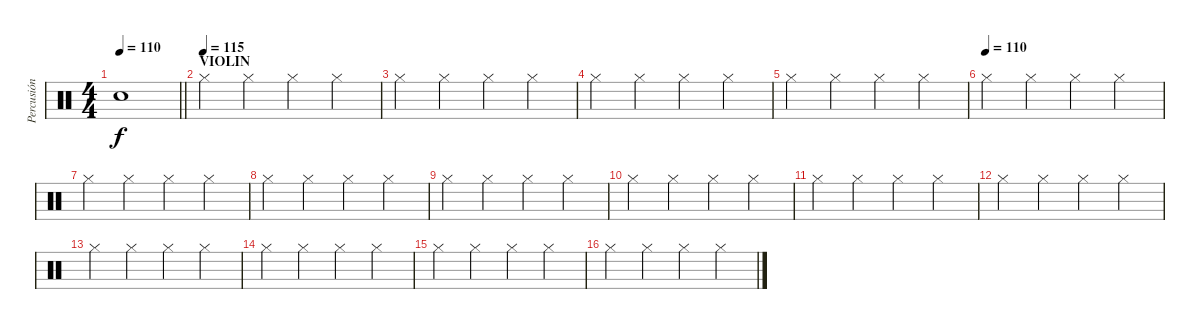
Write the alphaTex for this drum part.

\track ("Percusión" "Percusión") {instrument percussion}
\staff {score}
\articulation defaults
\ts (4 4)
\tempo 110
\clef neutral
\barLineRight lightlight
\ks c "Snare (hit)"{t}.1{dy f}
|
\section ("" "VIOLIN")
\tempo (115)
"Hi-Hat (closed)".4{volume 11} "Hi-Hat (closed)".4 "Hi-Hat (closed)".4 "Hi-Hat (closed)".4 |
"Hi-Hat (closed)".4 "Hi-Hat (closed)".4 "Hi-Hat (closed)".4 "Hi-Hat (closed)".4 |
"Hi-Hat (closed)".4 "Hi-Hat (closed)".4 "Hi-Hat (closed)".4 "Hi-Hat (closed)".4 |
"Hi-Hat (closed)".4 "Hi-Hat (closed)".4 "Hi-Hat (closed)".4 "Hi-Hat (closed)".4 |
\tempo (110)
"Hi-Hat (closed)".4 "Hi-Hat (closed)".4 "Hi-Hat (closed)".4 "Hi-Hat (closed)".4 |
"Hi-Hat (closed)".4 "Hi-Hat (closed)".4 "Hi-Hat (closed)".4 "Hi-Hat (closed)".4 |
"Hi-Hat (closed)".4 "Hi-Hat (closed)".4 "Hi-Hat (closed)".4 "Hi-Hat (closed)".4 |
"Hi-Hat (closed)".4 "Hi-Hat (closed)".4 "Hi-Hat (closed)".4 "Hi-Hat (closed)".4 |
"Hi-Hat (closed)".4 "Hi-Hat (closed)".4 "Hi-Hat (closed)".4 "Hi-Hat (closed)".4 |
"Hi-Hat (closed)".4 "Hi-Hat (closed)".4 "Hi-Hat (closed)".4 "Hi-Hat (closed)".4 |
"Hi-Hat (closed)".4 "Hi-Hat (closed)".4 "Hi-Hat (closed)".4 "Hi-Hat (closed)".4 |
"Hi-Hat (closed)".4 "Hi-Hat (closed)".4 "Hi-Hat (closed)".4 "Hi-Hat (closed)".4 |
"Hi-Hat (closed)".4 "Hi-Hat (closed)".4 "Hi-Hat (closed)".4 "Hi-Hat (closed)".4 |
"Hi-Hat (closed)".4 "Hi-Hat (closed)".4 "Hi-Hat (closed)".4 "Hi-Hat (closed)".4 |
"Hi-Hat (closed)".4 "Hi-Hat (closed)".4 "Hi-Hat (closed)".4 "Hi-Hat (closed)".4
